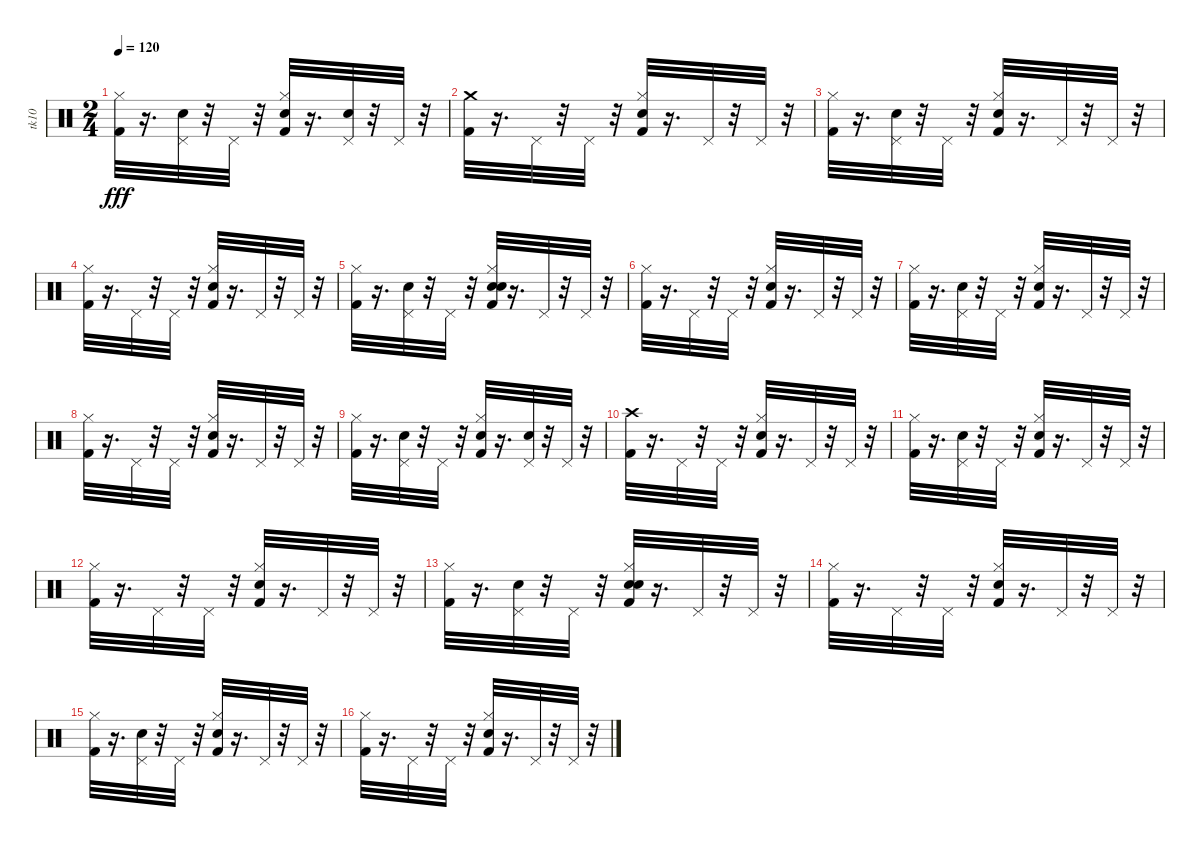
\track ("tk10" "tk10") {instrument percussion}
\staff {score}
\articulation defaults
\ts (2 4)
\tempo 120
\clef neutral
\ks c
("Kick (hit) 2" "Hi-Hat (closed)").32{dy fff} r.16{d} ("Hand Clap (hit)" "Pedal Hi-Hat (hit)").32 r.32 "Pedal Hi-Hat (hit)".32 r.32 ("Snare (hit) 2" "Kick (hit) 2" "Hi-Hat (closed)").32 r.16{d} ("Hand Clap (hit)" "Pedal Hi-Hat (hit)").32 r.32 "Pedal Hi-Hat (hit)".32 r.32 |
("Kick (hit) 2" "Crash medium (hit)").32 r.16{d} "Pedal Hi-Hat (hit)".32 r.32 "Pedal Hi-Hat (hit)".32 r.32 ("Snare (hit) 2" "Kick (hit) 2" "Hi-Hat (closed)").32 r.16{d} "Pedal Hi-Hat (hit)".32 r.32 "Pedal Hi-Hat (hit)".32 r.32 |
("Kick (hit) 2" "Hi-Hat (closed)").32 r.16{d} ("Pedal Hi-Hat (hit)" "Hand Clap (hit)").32 r.32 "Pedal Hi-Hat (hit)".32 r.32 ("Snare (hit) 2" "Kick (hit) 2" "Hi-Hat (closed)").32 r.16{d} "Pedal Hi-Hat (hit)".32 r.32 "Pedal Hi-Hat (hit)".32 r.32 |
("Kick (hit) 2" "Hi-Hat (closed)").32 r.16{d} "Pedal Hi-Hat (hit)".32 r.32 "Pedal Hi-Hat (hit)".32 r.32 ("Snare (hit) 2" "Kick (hit) 2" "Hi-Hat (closed)").32 r.16{d} "Pedal Hi-Hat (hit)".32 r.32 "Pedal Hi-Hat (hit)".32 r.32 |
("Kick (hit) 2" "Hi-Hat (closed)").32 r.16{d} ("Hand Clap (hit)" "Pedal Hi-Hat (hit)").32 r.32 "Pedal Hi-Hat (hit)".32 r.32 ("Snare (hit) 2" "Kick (hit) 2" "Hand Clap (hit)" "Hi-Hat (closed)").32 r.16{d} "Pedal Hi-Hat (hit)".32 r.32 "Pedal Hi-Hat (hit)".32 r.32 |
("Kick (hit) 2" "Hi-Hat (closed)").32 r.16{d} "Pedal Hi-Hat (hit)".32 r.32 "Pedal Hi-Hat (hit)".32 r.32 ("Kick (hit) 2" "Snare (hit) 2" "Hi-Hat (closed)").32 r.16{d} "Pedal Hi-Hat (hit)".32 r.32 "Pedal Hi-Hat (hit)".32 r.32 |
("Kick (hit) 2" "Hi-Hat (closed)").32 r.16{d} ("Hand Clap (hit)" "Pedal Hi-Hat (hit)").32 r.32 "Pedal Hi-Hat (hit)".32 r.32 ("Kick (hit) 2" "Snare (hit) 2" "Hi-Hat (closed)").32 r.16{d} "Pedal Hi-Hat (hit)".32 r.32 "Pedal Hi-Hat (hit)".32 r.32 |
("Kick (hit) 2" "Hi-Hat (closed)").32 r.16{d} "Pedal Hi-Hat (hit)".32 r.32 "Pedal Hi-Hat (hit)".32 r.32 ("Snare (hit) 2" "Kick (hit) 2" "Hi-Hat (closed)").32 r.16{d} "Pedal Hi-Hat (hit)".32 r.32 "Pedal Hi-Hat (hit)".32 r.32 |
("Kick (hit) 2" "Hi-Hat (closed)").32 r.16{d} ("Hand Clap (hit)" "Pedal Hi-Hat (hit)").32 r.32 "Pedal Hi-Hat (hit)".32 r.32 ("Snare (hit) 2" "Kick (hit) 2" "Hi-Hat (closed)").32 r.16{d} ("Hand Clap (hit)" "Pedal Hi-Hat (hit)").32 r.32 "Pedal Hi-Hat (hit)".32 r.32 |
("Kick (hit) 2" "Crash high (hit)").32 r.16{d} "Pedal Hi-Hat (hit)".32 r.32 "Pedal Hi-Hat (hit)".32 r.32 ("Snare (hit) 2" "Kick (hit) 2" "Hi-Hat (closed)").32 r.16{d} "Pedal Hi-Hat (hit)".32 r.32 "Pedal Hi-Hat (hit)".32 r.32 |
("Kick (hit) 2" "Hi-Hat (closed)").32 r.16{d} ("Pedal Hi-Hat (hit)" "Hand Clap (hit)").32 r.32 "Pedal Hi-Hat (hit)".32 r.32 ("Snare (hit) 2" "Kick (hit) 2" "Hi-Hat (closed)").32 r.16{d} "Pedal Hi-Hat (hit)".32 r.32 "Pedal Hi-Hat (hit)".32 r.32 |
("Kick (hit) 2" "Hi-Hat (closed)").32 r.16{d} "Pedal Hi-Hat (hit)".32 r.32 "Pedal Hi-Hat (hit)".32 r.32 ("Snare (hit) 2" "Kick (hit) 2" "Hi-Hat (closed)").32 r.16{d} "Pedal Hi-Hat (hit)".32 r.32 "Pedal Hi-Hat (hit)".32 r.32 |
("Kick (hit) 2" "Hi-Hat (closed)").32 r.16{d} ("Hand Clap (hit)" "Pedal Hi-Hat (hit)").32 r.32 "Pedal Hi-Hat (hit)".32 r.32 ("Snare (hit) 2" "Kick (hit) 2" "Hand Clap (hit)" "Hi-Hat (closed)").32 r.16{d} "Pedal Hi-Hat (hit)".32 r.32 "Pedal Hi-Hat (hit)".32 r.32 |
("Kick (hit) 2" "Hi-Hat (closed)").32 r.16{d} "Pedal Hi-Hat (hit)".32 r.32 "Pedal Hi-Hat (hit)".32 r.32 ("Kick (hit) 2" "Snare (hit) 2" "Hi-Hat (closed)").32 r.16{d} "Pedal Hi-Hat (hit)".32 r.32 "Pedal Hi-Hat (hit)".32 r.32 |
("Kick (hit) 2" "Hi-Hat (closed)").32 r.16{d} ("Hand Clap (hit)" "Pedal Hi-Hat (hit)").32 r.32 "Pedal Hi-Hat (hit)".32 r.32 ("Kick (hit) 2" "Snare (hit) 2" "Hi-Hat (closed)").32 r.16{d} "Pedal Hi-Hat (hit)".32 r.32 "Pedal Hi-Hat (hit)".32 r.32 |
("Kick (hit) 2" "Hi-Hat (closed)").32 r.16{d} "Pedal Hi-Hat (hit)".32 r.32 "Pedal Hi-Hat (hit)".32 r.32 ("Snare (hit) 2" "Kick (hit) 2" "Hi-Hat (closed)").32 r.16{d} "Pedal Hi-Hat (hit)".32 r.32 "Pedal Hi-Hat (hit)".32 r.32
